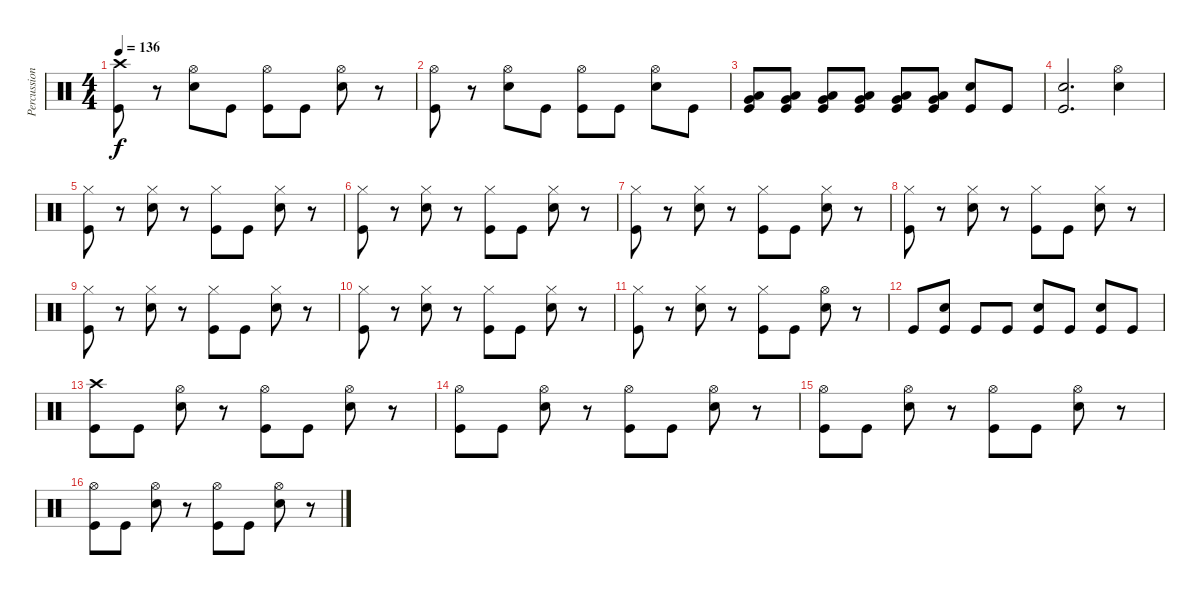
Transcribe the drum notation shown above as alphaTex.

\track ("Percussion" "Percussion") {instrument percussion}
\staff {score}
\articulation defaults
\ts (4 4)
\tempo 136
\clef neutral
\ks c
("Crash high (hit)" "Kick (hit)").8{dy f} r.8 ("Hi-Hat (open)" "Snare (hit) 2").8 "Kick (hit)".8 ("Hi-Hat (open)" "Kick (hit)").8 "Kick (hit)".8 ("Hi-Hat (open)" "Snare (hit) 2").8 r.8 |
("Hi-Hat (open)" "Kick (hit)").8 r.8 ("Hi-Hat (open)" "Snare (hit) 2").8 "Kick (hit)".8 ("Hi-Hat (open)" "Kick (hit)").8 "Kick (hit)".8 ("Hi-Hat (open)" "Snare (hit) 2").8 "Kick (hit)".8 |
("Low Tom (hit)" "Very Low Tom (hit)" "Kick (hit)").8 ("Low Tom (hit)" "Very Low Tom (hit)" "Kick (hit)").8 ("Low Tom (hit)" "Very Low Tom (hit)" "Kick (hit)").8 ("Low Tom (hit)" "Very Low Tom (hit)" "Kick (hit)").8 ("Low Tom (hit)" "Very Low Tom (hit)" "Kick (hit)").8 ("Low Tom (hit)" "Very Low Tom (hit)" "Kick (hit)").8 ("Snare (hit) 2" "Kick (hit)").8 "Kick (hit)".8 |
("Snare (hit) 2" "Kick (hit)").2{d} ("Hi-Hat (open)" "Snare (hit) 2").4 |
("Hi-Hat (closed)" "Kick (hit)").8 r.8 ("Hi-Hat (closed)" "Snare (hit) 2").8 r.8 ("Hi-Hat (closed)" "Kick (hit)").8 "Kick (hit)".8 ("Hi-Hat (closed)" "Snare (hit) 2").8 r.8 |
("Hi-Hat (closed)" "Kick (hit)").8 r.8 ("Hi-Hat (closed)" "Snare (hit) 2").8 r.8 ("Hi-Hat (closed)" "Kick (hit)").8 "Kick (hit)".8 ("Hi-Hat (closed)" "Snare (hit) 2").8 r.8 |
("Hi-Hat (closed)" "Kick (hit)").8 r.8 ("Hi-Hat (closed)" "Snare (hit) 2").8 r.8 ("Hi-Hat (closed)" "Kick (hit)").8 "Kick (hit)".8 ("Hi-Hat (closed)" "Snare (hit) 2").8 r.8 |
("Hi-Hat (closed)" "Kick (hit)").8 r.8 ("Hi-Hat (closed)" "Snare (hit) 2").8 r.8 ("Hi-Hat (closed)" "Kick (hit)").8 "Kick (hit)".8 ("Hi-Hat (closed)" "Snare (hit) 2").8 r.8 |
("Hi-Hat (closed)" "Kick (hit)").8 r.8 ("Hi-Hat (closed)" "Snare (hit) 2").8 r.8 ("Hi-Hat (closed)" "Kick (hit)").8 "Kick (hit)".8 ("Hi-Hat (closed)" "Snare (hit) 2").8 r.8 |
("Hi-Hat (closed)" "Kick (hit)").8 r.8 ("Hi-Hat (closed)" "Snare (hit) 2").8 r.8 ("Hi-Hat (closed)" "Kick (hit)").8 "Kick (hit)".8 ("Hi-Hat (closed)" "Snare (hit) 2").8 r.8 |
("Hi-Hat (closed)" "Kick (hit)").8 r.8 ("Hi-Hat (closed)" "Snare (hit) 2").8 r.8 ("Hi-Hat (closed)" "Kick (hit)").8 "Kick (hit)".8 ("Hi-Hat (open)" "Snare (hit) 2").8 r.8 |
"Kick (hit)".8 ("Snare (hit) 2" "Kick (hit)").8 "Kick (hit)".8 "Kick (hit)".8 ("Snare (hit) 2" "Kick (hit)").8 "Kick (hit)".8 ("Snare (hit) 2" "Kick (hit)").8 "Kick (hit)".8 |
("Crash high (hit)" "Kick (hit)").8 "Kick (hit)".8 ("Hi-Hat (open)" "Snare (hit) 2").8 r.8 ("Hi-Hat (open)" "Kick (hit)").8 "Kick (hit)".8 ("Hi-Hat (open)" "Snare (hit) 2").8 r.8 |
("Hi-Hat (open)" "Kick (hit)").8 "Kick (hit)".8 ("Hi-Hat (open)" "Snare (hit) 2").8 r.8 ("Hi-Hat (open)" "Kick (hit)").8 "Kick (hit)".8 ("Hi-Hat (open)" "Snare (hit) 2").8 r.8 |
("Hi-Hat (open)" "Kick (hit)").8 "Kick (hit)".8 ("Hi-Hat (open)" "Snare (hit) 2").8 r.8 ("Hi-Hat (open)" "Kick (hit)").8 "Kick (hit)".8 ("Hi-Hat (open)" "Snare (hit) 2").8 r.8 |
("Hi-Hat (open)" "Kick (hit)").8 "Kick (hit)".8 ("Hi-Hat (open)" "Snare (hit) 2").8 r.8 ("Hi-Hat (open)" "Kick (hit)").8 "Kick (hit)".8 ("Hi-Hat (open)" "Snare (hit) 2").8 r.8
